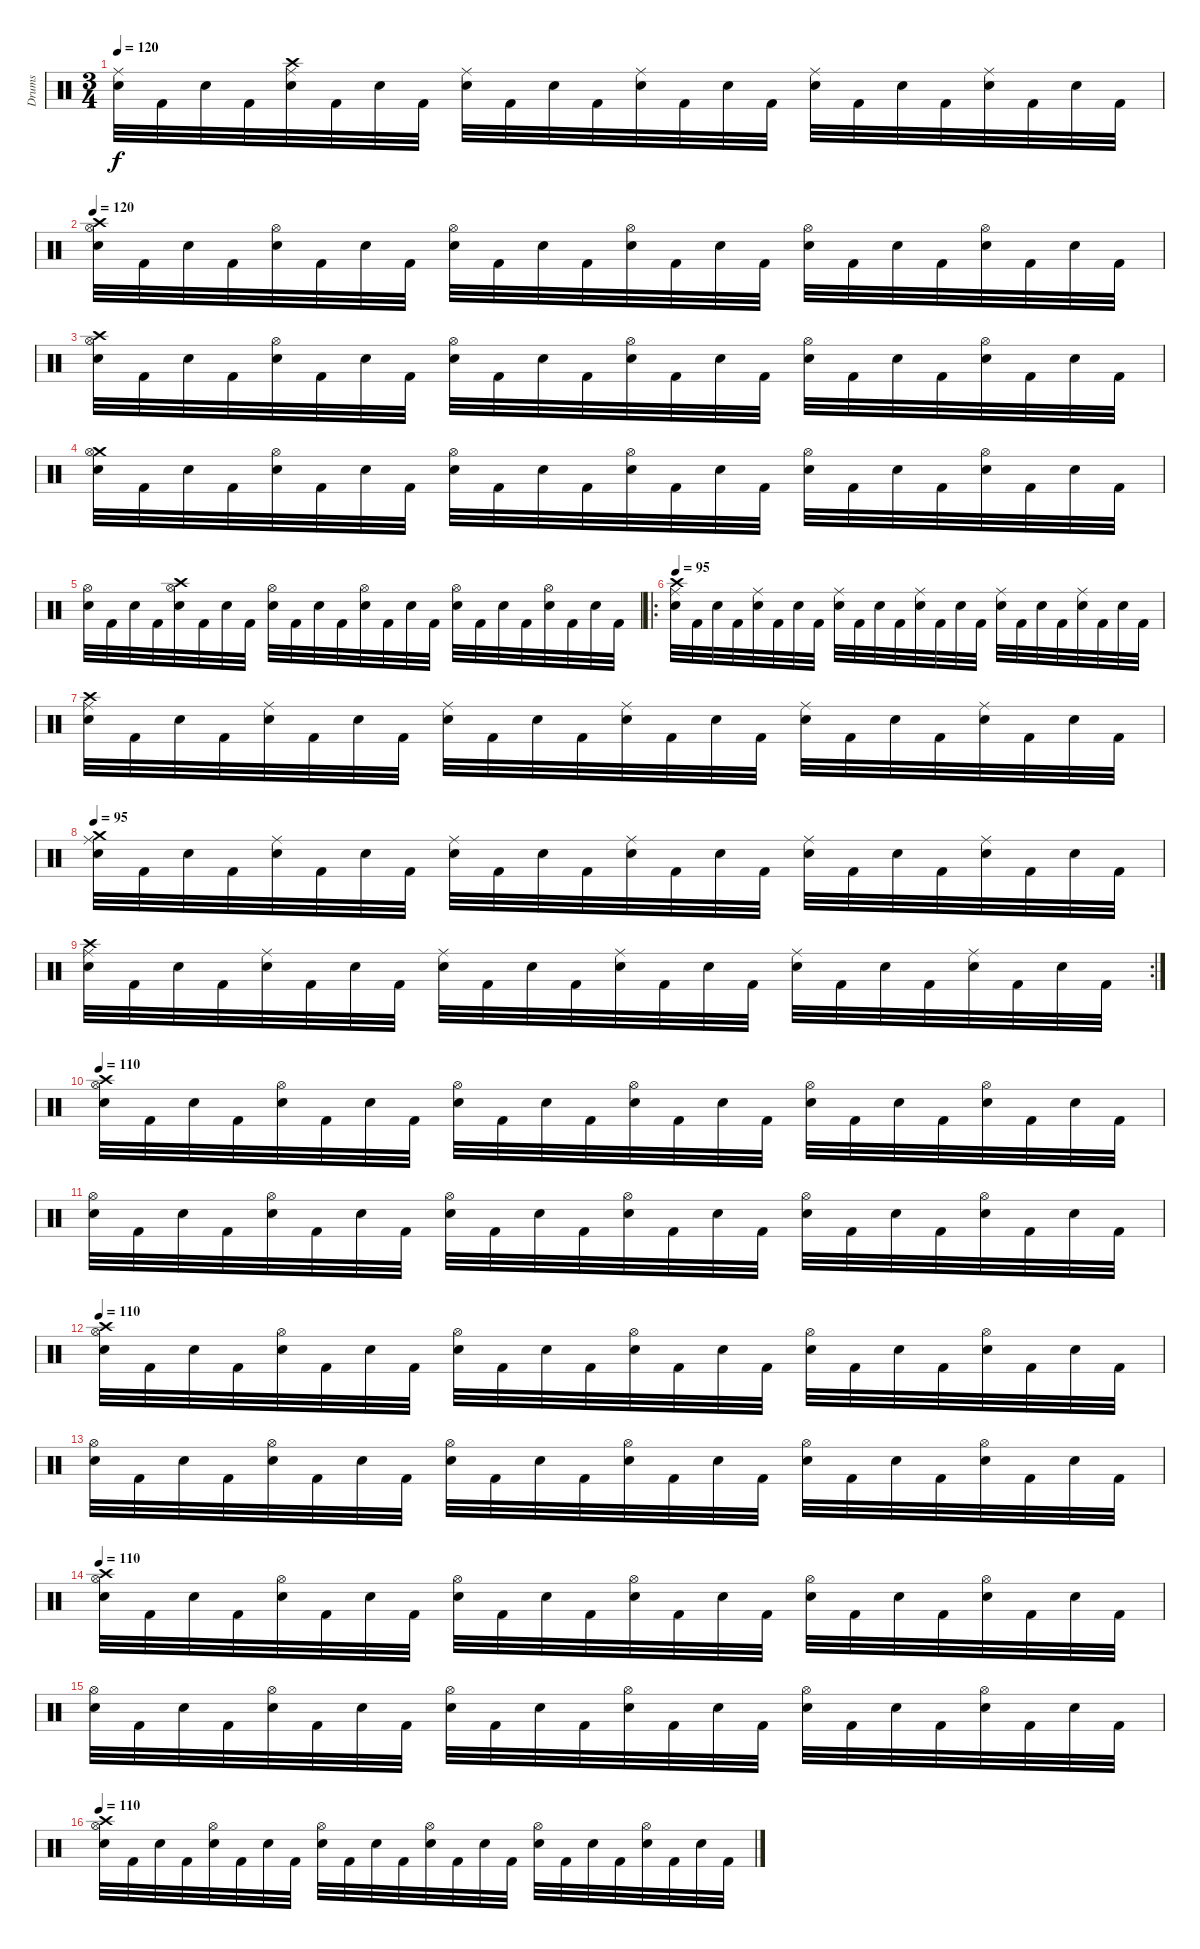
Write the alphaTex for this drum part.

\track ("Drums" "Drums") {instrument percussion}
\staff {score}
\articulation defaults
\ts (3 4)
\tempo 120
\clef neutral
\ks c
("Ride (middle)" "Electric Snare (hit)").32{dy f} "Kick (hit) 2".32 "Electric Snare (hit)".32 "Kick (hit) 2".32 ("Crash high (hit)" "Ride (middle)" "Electric Snare (hit)").32 "Kick (hit) 2".32 "Electric Snare (hit)".32 "Kick (hit) 2".32 ("Ride (middle)" "Electric Snare (hit)").32 "Kick (hit) 2".32 "Electric Snare (hit)".32 "Kick (hit) 2".32 ("Ride (middle)" "Electric Snare (hit)").32 "Kick (hit) 2".32 "Electric Snare (hit)".32 "Kick (hit) 2".32 ("Ride (middle)" "Electric Snare (hit)").32 "Kick (hit) 2".32 "Electric Snare (hit)".32 "Kick (hit) 2".32 ("Ride (middle)" "Electric Snare (hit)").32 "Kick (hit) 2".32 "Electric Snare (hit)".32 "Kick (hit) 2".32 |
\tempo 120
("Crash high (hit)" "Hi-Hat (open)" "Electric Snare (hit)").32 "Kick (hit) 2".32 "Electric Snare (hit)".32 "Kick (hit) 2".32 ("Hi-Hat (open)" "Electric Snare (hit)").32 "Kick (hit) 2".32 "Electric Snare (hit)".32 "Kick (hit) 2".32 ("Hi-Hat (open)" "Electric Snare (hit)").32 "Kick (hit) 2".32 "Electric Snare (hit)".32 "Kick (hit) 2".32 ("Hi-Hat (open)" "Electric Snare (hit)").32 "Kick (hit) 2".32 "Electric Snare (hit)".32 "Kick (hit) 2".32 ("Hi-Hat (open)" "Electric Snare (hit)").32 "Kick (hit) 2".32 "Electric Snare (hit)".32 "Kick (hit) 2".32 ("Hi-Hat (open)" "Electric Snare (hit)").32 "Kick (hit) 2".32 "Electric Snare (hit)".32 "Kick (hit) 2".32 |
("Crash high (hit)" "Hi-Hat (open)" "Electric Snare (hit)").32 "Kick (hit) 2".32 "Electric Snare (hit)".32 "Kick (hit) 2".32 ("Hi-Hat (open)" "Electric Snare (hit)").32 "Kick (hit) 2".32 "Electric Snare (hit)".32 "Kick (hit) 2".32 ("Hi-Hat (open)" "Electric Snare (hit)").32 "Kick (hit) 2".32 "Electric Snare (hit)".32 "Kick (hit) 2".32 ("Hi-Hat (open)" "Electric Snare (hit)").32 "Kick (hit) 2".32 "Electric Snare (hit)".32 "Kick (hit) 2".32 ("Hi-Hat (open)" "Electric Snare (hit)").32 "Kick (hit) 2".32 "Electric Snare (hit)".32 "Kick (hit) 2".32 ("Hi-Hat (open)" "Electric Snare (hit)").32 "Kick (hit) 2".32 "Electric Snare (hit)".32 "Kick (hit) 2".32 |
("Crash medium (hit)" "Hi-Hat (open)" "Electric Snare (hit)").32 "Kick (hit) 2".32 "Electric Snare (hit)".32 "Kick (hit) 2".32 ("Hi-Hat (open)" "Electric Snare (hit)").32 "Kick (hit) 2".32 "Electric Snare (hit)".32 "Kick (hit) 2".32 ("Hi-Hat (open)" "Electric Snare (hit)").32 "Kick (hit) 2".32 "Electric Snare (hit)".32 "Kick (hit) 2".32 ("Hi-Hat (open)" "Electric Snare (hit)").32 "Kick (hit) 2".32 "Electric Snare (hit)".32 "Kick (hit) 2".32 ("Hi-Hat (open)" "Electric Snare (hit)").32 "Kick (hit) 2".32 "Electric Snare (hit)".32 "Kick (hit) 2".32 ("Hi-Hat (open)" "Electric Snare (hit)").32 "Kick (hit) 2".32 "Electric Snare (hit)".32 "Kick (hit) 2".32 |
("Hi-Hat (open)" "Electric Snare (hit)").32 "Kick (hit) 2".32 "Electric Snare (hit)".32 "Kick (hit) 2".32 ("Crash high (hit)" "Hi-Hat (open)" "Electric Snare (hit)").32 "Kick (hit) 2".32 "Electric Snare (hit)".32 "Kick (hit) 2".32 ("Hi-Hat (open)" "Electric Snare (hit)").32 "Kick (hit) 2".32 "Electric Snare (hit)".32 "Kick (hit) 2".32 ("Hi-Hat (open)" "Electric Snare (hit)").32 "Kick (hit) 2".32 "Electric Snare (hit)".32 "Kick (hit) 2".32 ("Hi-Hat (open)" "Electric Snare (hit)").32 "Kick (hit) 2".32 "Electric Snare (hit)".32 "Kick (hit) 2".32 ("Hi-Hat (open)" "Electric Snare (hit)").32 "Kick (hit) 2".32 "Electric Snare (hit)".32 "Kick (hit) 2".32 |
\ro
\tempo 95
("Crash high (hit)" "Ride (middle)" "Electric Snare (hit)").32 "Kick (hit) 2".32 "Electric Snare (hit)".32 "Kick (hit) 2".32 ("Ride (middle)" "Electric Snare (hit)").32 "Kick (hit) 2".32 "Electric Snare (hit)".32 "Kick (hit) 2".32 ("Ride (middle)" "Electric Snare (hit)").32 "Kick (hit) 2".32 "Electric Snare (hit)".32 "Kick (hit) 2".32 ("Ride (middle)" "Electric Snare (hit)").32 "Kick (hit) 2".32 "Electric Snare (hit)".32 "Kick (hit) 2".32 ("Ride (middle)" "Electric Snare (hit)").32 "Kick (hit) 2".32 "Electric Snare (hit)".32 "Kick (hit) 2".32 ("Ride (middle)" "Electric Snare (hit)").32 "Kick (hit) 2".32 "Electric Snare (hit)".32 "Kick (hit) 2".32 |
("Crash high (hit)" "Ride (middle)" "Electric Snare (hit)").32 "Kick (hit) 2".32 "Electric Snare (hit)".32 "Kick (hit) 2".32 ("Ride (middle)" "Electric Snare (hit)").32 "Kick (hit) 2".32 "Electric Snare (hit)".32 "Kick (hit) 2".32 ("Ride (middle)" "Electric Snare (hit)").32 "Kick (hit) 2".32 "Electric Snare (hit)".32 "Kick (hit) 2".32 ("Ride (middle)" "Electric Snare (hit)").32 "Kick (hit) 2".32 "Electric Snare (hit)".32 "Kick (hit) 2".32 ("Ride (middle)" "Electric Snare (hit)").32 "Kick (hit) 2".32 "Electric Snare (hit)".32 "Kick (hit) 2".32 ("Ride (middle)" "Electric Snare (hit)").32 "Kick (hit) 2".32 "Electric Snare (hit)".32 "Kick (hit) 2".32 |
\tempo 95
("Crash medium (hit)" "Ride (middle)" "Electric Snare (hit)").32 "Kick (hit) 2".32 "Electric Snare (hit)".32 "Kick (hit) 2".32 ("Ride (middle)" "Electric Snare (hit)").32 "Kick (hit) 2".32 "Electric Snare (hit)".32 "Kick (hit) 2".32 ("Ride (middle)" "Electric Snare (hit)").32 "Kick (hit) 2".32 "Electric Snare (hit)".32 "Kick (hit) 2".32 ("Ride (middle)" "Electric Snare (hit)").32 "Kick (hit) 2".32 "Electric Snare (hit)".32 "Kick (hit) 2".32 ("Ride (middle)" "Electric Snare (hit)").32 "Kick (hit) 2".32 "Electric Snare (hit)".32 "Kick (hit) 2".32 ("Ride (middle)" "Electric Snare (hit)").32 "Kick (hit) 2".32 "Electric Snare (hit)".32 "Kick (hit) 2".32 |
\rc 2
("Crash high (hit)" "Ride (middle)" "Electric Snare (hit)").32 "Kick (hit) 2".32 "Electric Snare (hit)".32 "Kick (hit) 2".32 ("Ride (middle)" "Electric Snare (hit)").32 "Kick (hit) 2".32 "Electric Snare (hit)".32 "Kick (hit) 2".32 ("Ride (middle)" "Electric Snare (hit)").32 "Kick (hit) 2".32 "Electric Snare (hit)".32 "Kick (hit) 2".32 ("Ride (middle)" "Electric Snare (hit)").32 "Kick (hit) 2".32 "Electric Snare (hit)".32 "Kick (hit) 2".32 ("Ride (middle)" "Electric Snare (hit)").32 "Kick (hit) 2".32 "Electric Snare (hit)".32 "Kick (hit) 2".32 ("Ride (middle)" "Electric Snare (hit)").32 "Kick (hit) 2".32 "Electric Snare (hit)".32 "Kick (hit) 2".32 |
\tempo 100
\tempo 110
("Crash high (hit)" "Hi-Hat (open)" "Electric Snare (hit)").32 "Kick (hit) 2".32 "Electric Snare (hit)".32 "Kick (hit) 2".32 ("Hi-Hat (open)" "Electric Snare (hit)").32 "Kick (hit) 2".32 "Electric Snare (hit)".32 "Kick (hit) 2".32 ("Hi-Hat (open)" "Electric Snare (hit)").32 "Kick (hit) 2".32 "Electric Snare (hit)".32 "Kick (hit) 2".32 ("Hi-Hat (open)" "Electric Snare (hit)").32 "Kick (hit) 2".32 "Electric Snare (hit)".32 "Kick (hit) 2".32 ("Hi-Hat (open)" "Electric Snare (hit)").32 "Kick (hit) 2".32 "Electric Snare (hit)".32 "Kick (hit) 2".32 ("Hi-Hat (open)" "Electric Snare (hit)").32 "Kick (hit) 2".32 "Electric Snare (hit)".32 "Kick (hit) 2".32 |
("Hi-Hat (open)" "Electric Snare (hit)").32 "Kick (hit) 2".32 "Electric Snare (hit)".32 "Kick (hit) 2".32 ("Hi-Hat (open)" "Electric Snare (hit)").32 "Kick (hit) 2".32 "Electric Snare (hit)".32 "Kick (hit) 2".32 ("Hi-Hat (open)" "Electric Snare (hit)").32 "Kick (hit) 2".32 "Electric Snare (hit)".32 "Kick (hit) 2".32 ("Hi-Hat (open)" "Electric Snare (hit)").32 "Kick (hit) 2".32 "Electric Snare (hit)".32 "Kick (hit) 2".32 ("Hi-Hat (open)" "Electric Snare (hit)").32 "Kick (hit) 2".32 "Electric Snare (hit)".32 "Kick (hit) 2".32 ("Hi-Hat (open)" "Electric Snare (hit)").32 "Kick (hit) 2".32 "Electric Snare (hit)".32 "Kick (hit) 2".32 |
\tempo 110
("Crash high (hit)" "Hi-Hat (open)" "Electric Snare (hit)").32 "Kick (hit) 2".32 "Electric Snare (hit)".32 "Kick (hit) 2".32 ("Hi-Hat (open)" "Electric Snare (hit)").32 "Kick (hit) 2".32 "Electric Snare (hit)".32 "Kick (hit) 2".32 ("Hi-Hat (open)" "Electric Snare (hit)").32 "Kick (hit) 2".32 "Electric Snare (hit)".32 "Kick (hit) 2".32 ("Hi-Hat (open)" "Electric Snare (hit)").32 "Kick (hit) 2".32 "Electric Snare (hit)".32 "Kick (hit) 2".32 ("Hi-Hat (open)" "Electric Snare (hit)").32 "Kick (hit) 2".32 "Electric Snare (hit)".32 "Kick (hit) 2".32 ("Hi-Hat (open)" "Electric Snare (hit)").32 "Kick (hit) 2".32 "Electric Snare (hit)".32 "Kick (hit) 2".32 |
("Hi-Hat (open)" "Electric Snare (hit)").32 "Kick (hit) 2".32 "Electric Snare (hit)".32 "Kick (hit) 2".32 ("Hi-Hat (open)" "Electric Snare (hit)").32 "Kick (hit) 2".32 "Electric Snare (hit)".32 "Kick (hit) 2".32 ("Hi-Hat (open)" "Electric Snare (hit)").32 "Kick (hit) 2".32 "Electric Snare (hit)".32 "Kick (hit) 2".32 ("Hi-Hat (open)" "Electric Snare (hit)").32 "Kick (hit) 2".32 "Electric Snare (hit)".32 "Kick (hit) 2".32 ("Hi-Hat (open)" "Electric Snare (hit)").32 "Kick (hit) 2".32 "Electric Snare (hit)".32 "Kick (hit) 2".32 ("Hi-Hat (open)" "Electric Snare (hit)").32 "Kick (hit) 2".32 "Electric Snare (hit)".32 "Kick (hit) 2".32 |
\tempo 110
("Crash high (hit)" "Hi-Hat (open)" "Electric Snare (hit)").32 "Kick (hit) 2".32 "Electric Snare (hit)".32 "Kick (hit) 2".32 ("Hi-Hat (open)" "Electric Snare (hit)").32 "Kick (hit) 2".32 "Electric Snare (hit)".32 "Kick (hit) 2".32 ("Hi-Hat (open)" "Electric Snare (hit)").32 "Kick (hit) 2".32 "Electric Snare (hit)".32 "Kick (hit) 2".32 ("Hi-Hat (open)" "Electric Snare (hit)").32 "Kick (hit) 2".32 "Electric Snare (hit)".32 "Kick (hit) 2".32 ("Hi-Hat (open)" "Electric Snare (hit)").32 "Kick (hit) 2".32 "Electric Snare (hit)".32 "Kick (hit) 2".32 ("Hi-Hat (open)" "Electric Snare (hit)").32 "Kick (hit) 2".32 "Electric Snare (hit)".32 "Kick (hit) 2".32 |
("Hi-Hat (open)" "Electric Snare (hit)").32 "Kick (hit) 2".32 "Electric Snare (hit)".32 "Kick (hit) 2".32 ("Hi-Hat (open)" "Electric Snare (hit)").32 "Kick (hit) 2".32 "Electric Snare (hit)".32 "Kick (hit) 2".32 ("Hi-Hat (open)" "Electric Snare (hit)").32 "Kick (hit) 2".32 "Electric Snare (hit)".32 "Kick (hit) 2".32 ("Hi-Hat (open)" "Electric Snare (hit)").32 "Kick (hit) 2".32 "Electric Snare (hit)".32 "Kick (hit) 2".32 ("Hi-Hat (open)" "Electric Snare (hit)").32 "Kick (hit) 2".32 "Electric Snare (hit)".32 "Kick (hit) 2".32 ("Hi-Hat (open)" "Electric Snare (hit)").32 "Kick (hit) 2".32 "Electric Snare (hit)".32 "Kick (hit) 2".32 |
\tempo 110
("Crash high (hit)" "Hi-Hat (open)" "Electric Snare (hit)").32 "Kick (hit) 2".32 "Electric Snare (hit)".32 "Kick (hit) 2".32 ("Hi-Hat (open)" "Electric Snare (hit)").32 "Kick (hit) 2".32 "Electric Snare (hit)".32 "Kick (hit) 2".32 ("Hi-Hat (open)" "Electric Snare (hit)").32 "Kick (hit) 2".32 "Electric Snare (hit)".32 "Kick (hit) 2".32 ("Hi-Hat (open)" "Electric Snare (hit)").32 "Kick (hit) 2".32 "Electric Snare (hit)".32 "Kick (hit) 2".32 ("Hi-Hat (open)" "Electric Snare (hit)").32 "Kick (hit) 2".32 "Electric Snare (hit)".32 "Kick (hit) 2".32 ("Hi-Hat (open)" "Electric Snare (hit)").32 "Kick (hit) 2".32 "Electric Snare (hit)".32 "Kick (hit) 2".32
